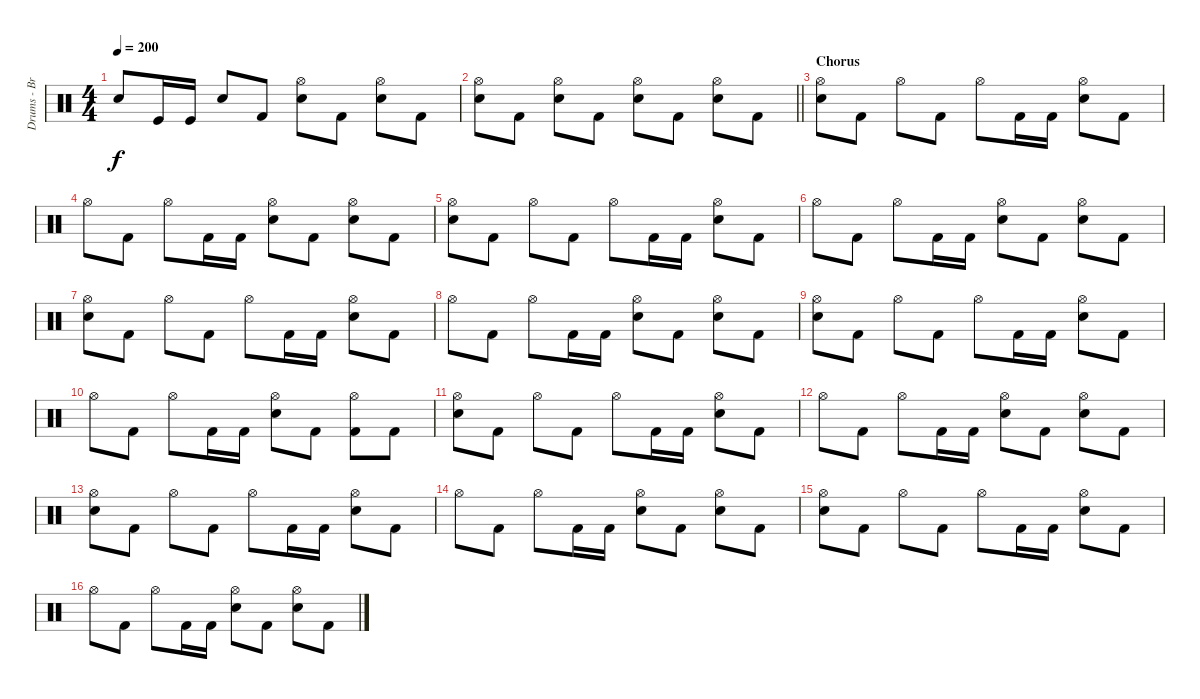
\track ("Drums - Brandon Barnes" "Drums - Br") {instrument percussion}
\staff {score}
\articulation defaults
\ts (4 4)
\tempo 200
\clef neutral
\ks c "Snare (hit) 2".8{dy f} "Kick (hit)".16 "Kick (hit)".16 "Snare (hit) 2".8 "Kick (hit) 2".8
("Snare (hit) 2" "Hi-Hat (open)").8 "Kick (hit) 2".8 ("Snare (hit) 2" "Hi-Hat (open)").8 "Kick (hit) 2".8 |
\barLineRight lightlight
("Snare (hit) 2" "Hi-Hat (open)").8 "Kick (hit) 2".8 ("Snare (hit) 2" "Hi-Hat (open)").8 "Kick (hit) 2".8 ("Snare (hit) 2" "Hi-Hat (open)").8 "Kick (hit) 2".8 ("Snare (hit) 2" "Hi-Hat (open)").8 "Kick (hit) 2".8 |
\section ("" "Chorus")
("Electric Snare (hit)" "Hi-Hat (open)").8 "Kick (hit) 2".8 "Hi-Hat (open)".8 "Kick (hit) 2".8 "Hi-Hat (open)".8 "Kick (hit) 2".16 "Kick (hit) 2".16 ("Electric Snare (hit)" "Hi-Hat (open)").8 "Kick (hit) 2".8 |
"Hi-Hat (open)".8 "Kick (hit) 2".8 "Hi-Hat (open)".8 "Kick (hit) 2".16 "Kick (hit) 2".16 ("Electric Snare (hit)" "Hi-Hat (open)").8 "Kick (hit) 2".8 ("Snare (hit) 2" "Hi-Hat (open)").8 "Kick (hit) 2".8 |
("Electric Snare (hit)" "Hi-Hat (open)").8 "Kick (hit) 2".8 "Hi-Hat (open)".8 "Kick (hit) 2".8 "Hi-Hat (open)".8 "Kick (hit) 2".16 "Kick (hit) 2".16 ("Electric Snare (hit)" "Hi-Hat (open)").8 "Kick (hit) 2".8 |
"Hi-Hat (open)".8 "Kick (hit) 2".8 "Hi-Hat (open)".8 "Kick (hit) 2".16 "Kick (hit) 2".16 ("Electric Snare (hit)" "Hi-Hat (open)").8 "Kick (hit) 2".8 ("Snare (hit) 2" "Hi-Hat (open)").8 "Kick (hit) 2".8 |
("Electric Snare (hit)" "Hi-Hat (open)").8 "Kick (hit) 2".8 "Hi-Hat (open)".8 "Kick (hit) 2".8 "Hi-Hat (open)".8 "Kick (hit) 2".16 "Kick (hit) 2".16 ("Electric Snare (hit)" "Hi-Hat (open)").8 "Kick (hit) 2".8 |
"Hi-Hat (open)".8 "Kick (hit) 2".8 "Hi-Hat (open)".8 "Kick (hit) 2".16 "Kick (hit) 2".16 ("Electric Snare (hit)" "Hi-Hat (open)").8 "Kick (hit) 2".8 ("Snare (hit) 2" "Hi-Hat (open)").8 "Kick (hit) 2".8 |
("Electric Snare (hit)" "Hi-Hat (open)").8 "Kick (hit) 2".8 "Hi-Hat (open)".8 "Kick (hit) 2".8 "Hi-Hat (open)".8 "Kick (hit) 2".16 "Kick (hit) 2".16 ("Electric Snare (hit)" "Hi-Hat (open)").8 "Kick (hit) 2".8 |
"Hi-Hat (open)".8 "Kick (hit) 2".8 "Hi-Hat (open)".8 "Kick (hit) 2".16 "Kick (hit) 2".16 ("Electric Snare (hit)" "Hi-Hat (open)").8 "Kick (hit) 2".8 ("Kick (hit) 2" "Hi-Hat (open)").8 "Kick (hit) 2".8 |
("Electric Snare (hit)" "Hi-Hat (open)").8 "Kick (hit) 2".8 "Hi-Hat (open)".8 "Kick (hit) 2".8 "Hi-Hat (open)".8 "Kick (hit) 2".16 "Kick (hit) 2".16 ("Electric Snare (hit)" "Hi-Hat (open)").8 "Kick (hit) 2".8 |
"Hi-Hat (open)".8 "Kick (hit) 2".8 "Hi-Hat (open)".8 "Kick (hit) 2".16 "Kick (hit) 2".16 ("Electric Snare (hit)" "Hi-Hat (open)").8 "Kick (hit) 2".8 ("Snare (hit) 2" "Hi-Hat (open)").8 "Kick (hit) 2".8 |
("Electric Snare (hit)" "Hi-Hat (open)").8 "Kick (hit) 2".8 "Hi-Hat (open)".8 "Kick (hit) 2".8 "Hi-Hat (open)".8 "Kick (hit) 2".16 "Kick (hit) 2".16 ("Electric Snare (hit)" "Hi-Hat (open)").8 "Kick (hit) 2".8 |
"Hi-Hat (open)".8 "Kick (hit) 2".8 "Hi-Hat (open)".8 "Kick (hit) 2".16 "Kick (hit) 2".16 ("Electric Snare (hit)" "Hi-Hat (open)").8 "Kick (hit) 2".8 ("Snare (hit) 2" "Hi-Hat (open)").8 "Kick (hit) 2".8 |
("Electric Snare (hit)" "Hi-Hat (open)").8 "Kick (hit) 2".8 "Hi-Hat (open)".8 "Kick (hit) 2".8 "Hi-Hat (open)".8 "Kick (hit) 2".16 "Kick (hit) 2".16 ("Electric Snare (hit)" "Hi-Hat (open)").8 "Kick (hit) 2".8 |
"Hi-Hat (open)".8 "Kick (hit) 2".8 "Hi-Hat (open)".8 "Kick (hit) 2".16 "Kick (hit) 2".16 ("Electric Snare (hit)" "Hi-Hat (open)").8 "Kick (hit) 2".8 ("Snare (hit) 2" "Hi-Hat (open)").8 "Kick (hit) 2".8
